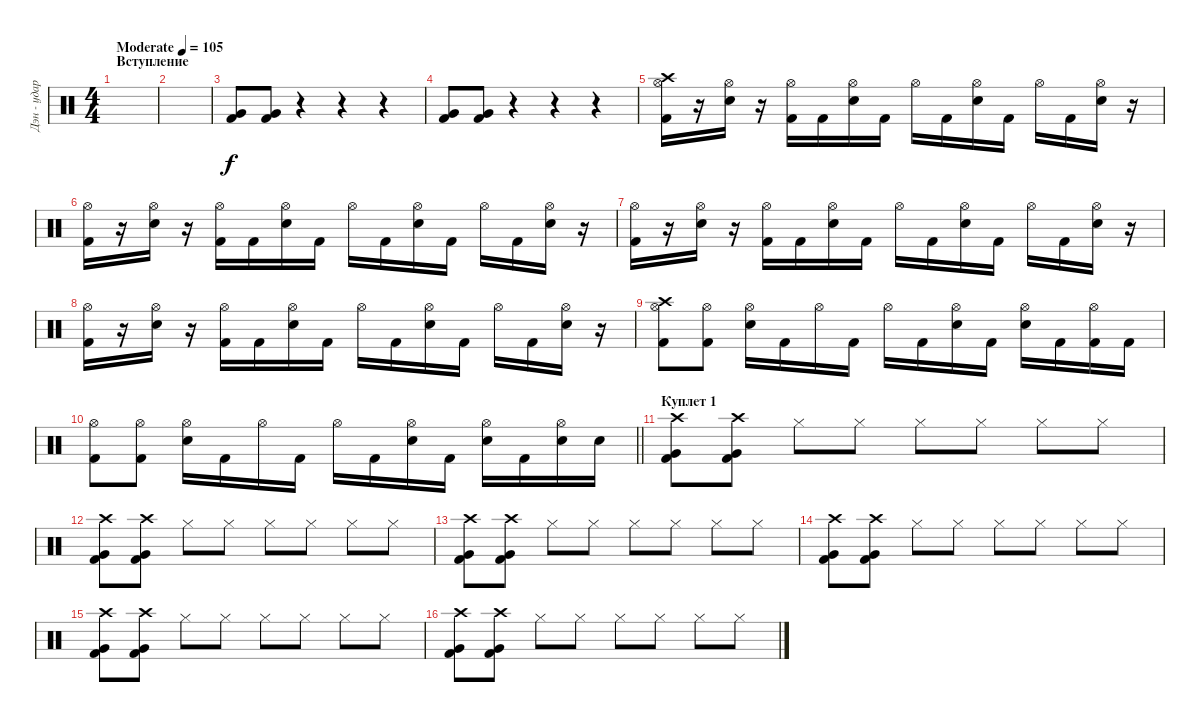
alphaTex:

\track ("Дэн - ударные" "Дэн - удар") {instrument percussion}
\staff {score}
\articulation defaults
\ts (4 4)
\section ("" "Вступление")
\tempo (105 "Moderate")
\clef neutral
\ks c
|
|
("Very Low Tom (hit)" "Kick (hit) 2").8 ("Very Low Tom (hit)" "Kick (hit) 2").8 r.4 r.4 r.4 |
("Very Low Tom (hit)" "Kick (hit) 2").8 ("Very Low Tom (hit)" "Kick (hit) 2").8 r.4 r.4 r.4 |
("Crash high (hit)" "Hi-Hat (open)" "Kick (hit) 2").16 r.16 ("Hi-Hat (open)" "Electric Snare (hit)").16 r.16 ("Hi-Hat (open)" "Kick (hit) 2").16 "Kick (hit) 2".16 ("Hi-Hat (open)" "Electric Snare (hit)").16 "Kick (hit) 2".16 "Hi-Hat (open)".16 "Kick (hit) 2".16 ("Hi-Hat (open)" "Electric Snare (hit)").16 "Kick (hit) 2".16 "Hi-Hat (open)".16 "Kick (hit) 2".16 ("Hi-Hat (open)" "Electric Snare (hit)").16 r.16 |
("Hi-Hat (open)" "Kick (hit) 2").16 r.16 ("Hi-Hat (open)" "Electric Snare (hit)").16 r.16 ("Hi-Hat (open)" "Kick (hit) 2").16 "Kick (hit) 2".16 ("Hi-Hat (open)" "Electric Snare (hit)").16 "Kick (hit) 2".16 "Hi-Hat (open)".16 "Kick (hit) 2".16 ("Hi-Hat (open)" "Electric Snare (hit)").16 "Kick (hit) 2".16 "Hi-Hat (open)".16 "Kick (hit) 2".16 ("Hi-Hat (open)" "Electric Snare (hit)").16 r.16 |
("Hi-Hat (open)" "Kick (hit) 2").16 r.16 ("Hi-Hat (open)" "Electric Snare (hit)").16 r.16 ("Hi-Hat (open)" "Kick (hit) 2").16 "Kick (hit) 2".16 ("Hi-Hat (open)" "Electric Snare (hit)").16 "Kick (hit) 2".16 "Hi-Hat (open)".16 "Kick (hit) 2".16 ("Hi-Hat (open)" "Electric Snare (hit)").16 "Kick (hit) 2".16 "Hi-Hat (open)".16 "Kick (hit) 2".16 ("Hi-Hat (open)" "Electric Snare (hit)").16 r.16 |
("Hi-Hat (open)" "Kick (hit) 2").16 r.16 ("Hi-Hat (open)" "Electric Snare (hit)").16 r.16 ("Hi-Hat (open)" "Kick (hit) 2").16 "Kick (hit) 2".16 ("Hi-Hat (open)" "Electric Snare (hit)").16 "Kick (hit) 2".16 "Hi-Hat (open)".16 "Kick (hit) 2".16 ("Hi-Hat (open)" "Electric Snare (hit)").16 "Kick (hit) 2".16 "Hi-Hat (open)".16 "Kick (hit) 2".16 ("Hi-Hat (open)" "Electric Snare (hit)").16 r.16 |
("Crash high (hit)" "Hi-Hat (open)" "Kick (hit) 2").8 ("Hi-Hat (open)" "Kick (hit) 2").8 ("Hi-Hat (open)" "Electric Snare (hit)").16 "Kick (hit) 2".16 "Hi-Hat (open)".16 "Kick (hit) 2".16 "Hi-Hat (open)".16 "Kick (hit) 2".16 ("Hi-Hat (open)" "Electric Snare (hit)").16 "Kick (hit) 2".16 ("Hi-Hat (open)" "Electric Snare (hit)").16 "Kick (hit) 2".16 ("Hi-Hat (open)" "Kick (hit) 2").16 "Kick (hit) 2".16 |
\barLineRight lightlight
("Hi-Hat (open)" "Kick (hit) 2").8 ("Hi-Hat (open)" "Kick (hit) 2").8 ("Hi-Hat (open)" "Electric Snare (hit)").16 "Kick (hit) 2".16 "Hi-Hat (open)".16 "Kick (hit) 2".16 "Hi-Hat (open)".16 "Kick (hit) 2".16 ("Hi-Hat (open)" "Electric Snare (hit)").16 "Kick (hit) 2".16 ("Hi-Hat (open)" "Electric Snare (hit)").16 "Kick (hit) 2".16 ("Hi-Hat (open)" "Electric Snare (hit)").16 "Electric Snare (hit)".16 |
\section ("" "Куплет 1")
("Crash high (hit)" "Very Low Tom (hit)" "Kick (hit) 2").8 ("Crash high (hit)" "Very Low Tom (hit)" "Kick (hit) 2").8 "Hi-Hat (closed)".8 "Hi-Hat (closed)".8 "Hi-Hat (closed)".8 "Hi-Hat (closed)".8 "Hi-Hat (closed)".8 "Hi-Hat (closed)".8 |
("Crash high (hit)" "Very Low Tom (hit)" "Kick (hit) 2").8 ("Crash high (hit)" "Very Low Tom (hit)" "Kick (hit) 2").8 "Hi-Hat (closed)".8 "Hi-Hat (closed)".8 "Hi-Hat (closed)".8 "Hi-Hat (closed)".8 "Hi-Hat (closed)".8 "Hi-Hat (closed)".8 |
("Crash high (hit)" "Very Low Tom (hit)" "Kick (hit) 2").8 ("Crash high (hit)" "Very Low Tom (hit)" "Kick (hit) 2").8 "Hi-Hat (closed)".8 "Hi-Hat (closed)".8 "Hi-Hat (closed)".8 "Hi-Hat (closed)".8 "Hi-Hat (closed)".8 "Hi-Hat (closed)".8 |
("Crash high (hit)" "Very Low Tom (hit)" "Kick (hit) 2").8 ("Crash high (hit)" "Very Low Tom (hit)" "Kick (hit) 2").8 "Hi-Hat (closed)".8 "Hi-Hat (closed)".8 "Hi-Hat (closed)".8 "Hi-Hat (closed)".8 "Hi-Hat (closed)".8 "Hi-Hat (closed)".8 |
("Crash high (hit)" "Very Low Tom (hit)" "Kick (hit) 2").8 ("Crash high (hit)" "Very Low Tom (hit)" "Kick (hit) 2").8 "Hi-Hat (closed)".8 "Hi-Hat (closed)".8 "Hi-Hat (closed)".8 "Hi-Hat (closed)".8 "Hi-Hat (closed)".8 "Hi-Hat (closed)".8 |
("Crash high (hit)" "Very Low Tom (hit)" "Kick (hit) 2").8 ("Crash high (hit)" "Very Low Tom (hit)" "Kick (hit) 2").8 "Hi-Hat (closed)".8 "Hi-Hat (closed)".8 "Hi-Hat (closed)".8 "Hi-Hat (closed)".8 "Hi-Hat (closed)".8 "Hi-Hat (closed)".8
